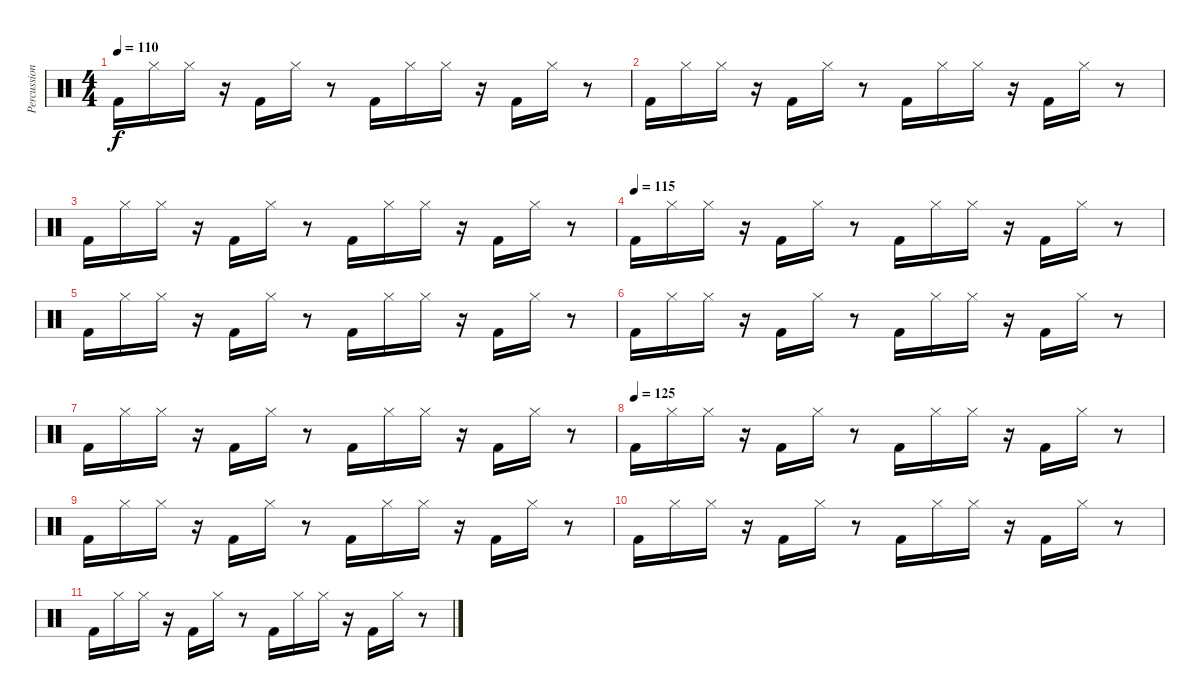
\track ("Percussion" "Percussion") {instrument percussion}
\staff {score}
\articulation defaults
\ts (4 4)
\tempo 110
\clef neutral
\ks c "Kick (hit) 2".16{dy f} "Hi-Hat (closed)".16 "Hi-Hat (closed)".16
r.16 "Kick (hit) 2".16 "Hi-Hat (closed)".16 r.8 "Kick (hit) 2".16 "Hi-Hat (closed)".16 "Hi-Hat (closed)".16 r.16 "Kick (hit) 2".16 "Hi-Hat (closed)".16 r.8 |
"Kick (hit) 2".16 "Hi-Hat (closed)".16 "Hi-Hat (closed)".16 r.16 "Kick (hit) 2".16 "Hi-Hat (closed)".16 r.8 "Kick (hit) 2".16 "Hi-Hat (closed)".16 "Hi-Hat (closed)".16 r.16 "Kick (hit) 2".16 "Hi-Hat (closed)".16 r.8 |
"Kick (hit) 2".16 "Hi-Hat (closed)".16 "Hi-Hat (closed)".16 r.16 "Kick (hit) 2".16 "Hi-Hat (closed)".16 r.8 "Kick (hit) 2".16 "Hi-Hat (closed)".16 "Hi-Hat (closed)".16 r.16 "Kick (hit) 2".16 "Hi-Hat (closed)".16 r.8 |
\tempo (115)
"Kick (hit) 2".16 "Hi-Hat (closed)".16 "Hi-Hat (closed)".16 r.16 "Kick (hit) 2".16 "Hi-Hat (closed)".16 r.8 "Kick (hit) 2".16 "Hi-Hat (closed)".16 "Hi-Hat (closed)".16 r.16 "Kick (hit) 2".16 "Hi-Hat (closed)".16 r.8 |
"Kick (hit) 2".16 "Hi-Hat (closed)".16 "Hi-Hat (closed)".16 r.16 "Kick (hit) 2".16 "Hi-Hat (closed)".16 r.8 "Kick (hit) 2".16 "Hi-Hat (closed)".16 "Hi-Hat (closed)".16 r.16 "Kick (hit) 2".16 "Hi-Hat (closed)".16 r.8 |
"Kick (hit) 2".16 "Hi-Hat (closed)".16 "Hi-Hat (closed)".16 r.16 "Kick (hit) 2".16 "Hi-Hat (closed)".16 r.8 "Kick (hit) 2".16 "Hi-Hat (closed)".16 "Hi-Hat (closed)".16 r.16 "Kick (hit) 2".16 "Hi-Hat (closed)".16 r.8 |
"Kick (hit) 2".16 "Hi-Hat (closed)".16 "Hi-Hat (closed)".16 r.16 "Kick (hit) 2".16 "Hi-Hat (closed)".16 r.8 "Kick (hit) 2".16 "Hi-Hat (closed)".16 "Hi-Hat (closed)".16 r.16 "Kick (hit) 2".16 "Hi-Hat (closed)".16 r.8 |
\tempo (125)
"Kick (hit) 2".16 "Hi-Hat (closed)".16 "Hi-Hat (closed)".16 r.16 "Kick (hit) 2".16 "Hi-Hat (closed)".16 r.8 "Kick (hit) 2".16 "Hi-Hat (closed)".16 "Hi-Hat (closed)".16 r.16 "Kick (hit) 2".16 "Hi-Hat (closed)".16 r.8 |
"Kick (hit) 2".16 "Hi-Hat (closed)".16 "Hi-Hat (closed)".16 r.16 "Kick (hit) 2".16 "Hi-Hat (closed)".16 r.8 "Kick (hit) 2".16 "Hi-Hat (closed)".16 "Hi-Hat (closed)".16 r.16 "Kick (hit) 2".16 "Hi-Hat (closed)".16 r.8 |
"Kick (hit) 2".16 "Hi-Hat (closed)".16 "Hi-Hat (closed)".16 r.16 "Kick (hit) 2".16 "Hi-Hat (closed)".16 r.8 "Kick (hit) 2".16 "Hi-Hat (closed)".16 "Hi-Hat (closed)".16 r.16 "Kick (hit) 2".16 "Hi-Hat (closed)".16 r.8 |
"Kick (hit) 2".16 "Hi-Hat (closed)".16 "Hi-Hat (closed)".16 r.16 "Kick (hit) 2".16 "Hi-Hat (closed)".16 r.8 "Kick (hit) 2".16 "Hi-Hat (closed)".16 "Hi-Hat (closed)".16 r.16 "Kick (hit) 2".16 "Hi-Hat (closed)".16 r.8
